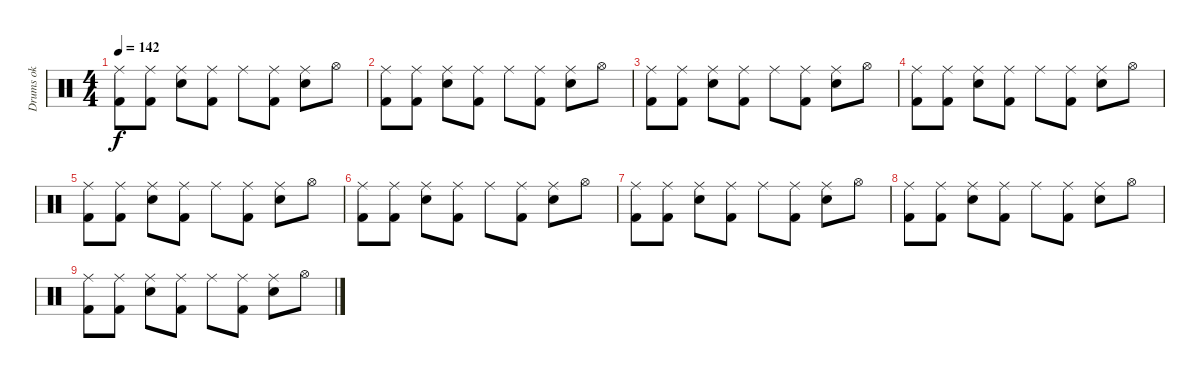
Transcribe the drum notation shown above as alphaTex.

\track ("Drums ok" "Drums ok") {instrument percussion}
\staff {score}
\articulation defaults
\ts (4 4)
\tempo 142
\clef neutral
\ks c
("Ride (middle)" "Kick (hit) 2").8{dy f} ("Ride (middle)" "Kick (hit) 2").8 ("Ride (middle)" "Electric Snare (hit)").8 ("Ride (middle)" "Kick (hit) 2").8 "Ride (middle)".8 ("Ride (middle)" "Kick (hit) 2").8 ("Ride (middle)" "Electric Snare (hit)").8 "Hi-Hat (open)".8 |
("Ride (middle)" "Kick (hit) 2").8 ("Ride (middle)" "Kick (hit) 2").8 ("Ride (middle)" "Electric Snare (hit)").8 ("Ride (middle)" "Kick (hit) 2").8 "Ride (middle)".8 ("Ride (middle)" "Kick (hit) 2").8 ("Ride (middle)" "Electric Snare (hit)").8 "Hi-Hat (open)".8 |
("Ride (middle)" "Kick (hit) 2").8 ("Ride (middle)" "Kick (hit) 2").8 ("Ride (middle)" "Electric Snare (hit)").8 ("Ride (middle)" "Kick (hit) 2").8 "Ride (middle)".8 ("Ride (middle)" "Kick (hit) 2").8 ("Ride (middle)" "Electric Snare (hit)").8 "Hi-Hat (open)".8 |
("Ride (middle)" "Kick (hit) 2").8 ("Ride (middle)" "Kick (hit) 2").8 ("Ride (middle)" "Electric Snare (hit)").8 ("Ride (middle)" "Kick (hit) 2").8 "Ride (middle)".8 ("Ride (middle)" "Kick (hit) 2").8 ("Ride (middle)" "Electric Snare (hit)").8 "Hi-Hat (open)".8 |
("Ride (middle)" "Kick (hit) 2").8 ("Ride (middle)" "Kick (hit) 2").8 ("Ride (middle)" "Electric Snare (hit)").8 ("Ride (middle)" "Kick (hit) 2").8 "Ride (middle)".8 ("Ride (middle)" "Kick (hit) 2").8 ("Ride (middle)" "Electric Snare (hit)").8 "Hi-Hat (open)".8 |
("Ride (middle)" "Kick (hit) 2").8 ("Ride (middle)" "Kick (hit) 2").8 ("Ride (middle)" "Electric Snare (hit)").8 ("Ride (middle)" "Kick (hit) 2").8 "Ride (middle)".8 ("Ride (middle)" "Kick (hit) 2").8 ("Ride (middle)" "Electric Snare (hit)").8 "Hi-Hat (open)".8 |
("Ride (middle)" "Kick (hit) 2").8 ("Ride (middle)" "Kick (hit) 2").8 ("Ride (middle)" "Electric Snare (hit)").8 ("Ride (middle)" "Kick (hit) 2").8 "Ride (middle)".8 ("Ride (middle)" "Kick (hit) 2").8 ("Ride (middle)" "Electric Snare (hit)").8 "Hi-Hat (open)".8 |
("Ride (middle)" "Kick (hit) 2").8 ("Ride (middle)" "Kick (hit) 2").8 ("Ride (middle)" "Electric Snare (hit)").8 ("Ride (middle)" "Kick (hit) 2").8 "Ride (middle)".8 ("Ride (middle)" "Kick (hit) 2").8 ("Ride (middle)" "Electric Snare (hit)").8 "Hi-Hat (open)".8 |
("Ride (middle)" "Kick (hit) 2").8 ("Ride (middle)" "Kick (hit) 2").8 ("Ride (middle)" "Electric Snare (hit)").8 ("Ride (middle)" "Kick (hit) 2").8 "Ride (middle)".8 ("Ride (middle)" "Kick (hit) 2").8 ("Ride (middle)" "Electric Snare (hit)").8 "Hi-Hat (open)".8
